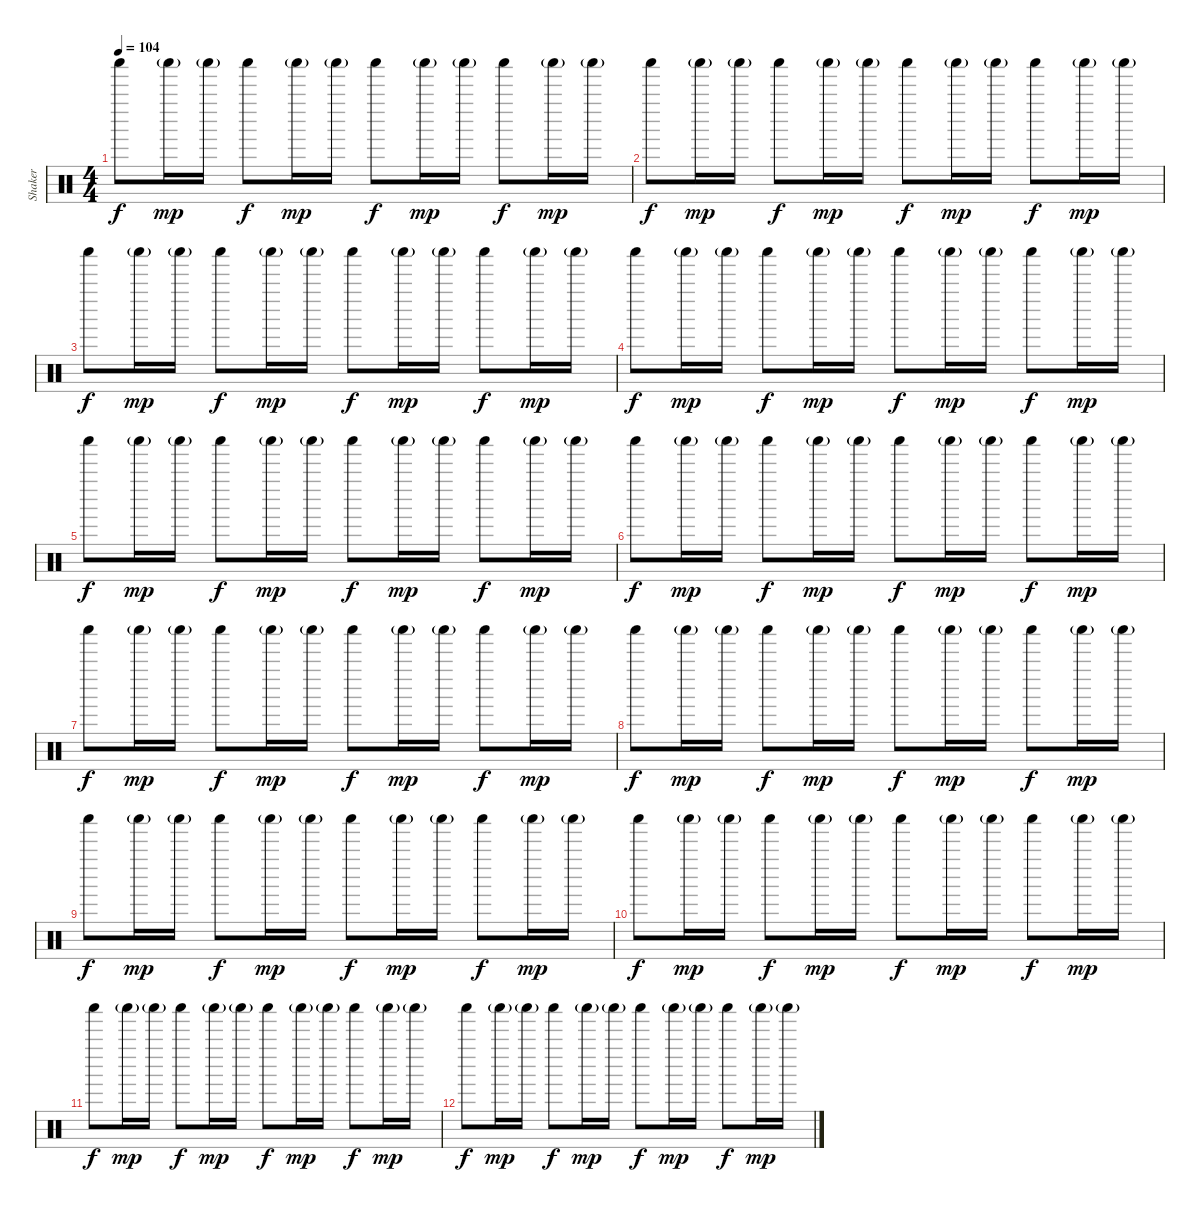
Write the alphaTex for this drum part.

\track ("Shaker" "Shaker") {instrument percussion}
\staff {score}
\articulation defaults
\ts (4 4)
\tempo 104
\clef neutral
\ks c "Shaker (hit)".8{dy f} "Shaker (hit)"{g}.16{dy mp} "Shaker (hit)"{g}.16 "Shaker (hit)".8{dy f} "Shaker (hit)"{g}.16{dy mp} "Shaker (hit)"{g}.16 "Shaker (hit)".8{dy f} "Shaker (hit)"{g}.16{dy mp} "Shaker (hit)"{g}.16 "Shaker (hit)".8{dy f} "Shaker (hit)"{g}.16{dy mp} "Shaker (hit)"{g}.16
|
"Shaker (hit)".8{dy f} "Shaker (hit)"{g}.16{dy mp} "Shaker (hit)"{g}.16 "Shaker (hit)".8{dy f} "Shaker (hit)"{g}.16{dy mp} "Shaker (hit)"{g}.16 "Shaker (hit)".8{dy f} "Shaker (hit)"{g}.16{dy mp} "Shaker (hit)"{g}.16 "Shaker (hit)".8{dy f} "Shaker (hit)"{g}.16{dy mp} "Shaker (hit)"{g}.16 |
"Shaker (hit)".8{dy f} "Shaker (hit)"{g}.16{dy mp} "Shaker (hit)"{g}.16 "Shaker (hit)".8{dy f} "Shaker (hit)"{g}.16{dy mp} "Shaker (hit)"{g}.16 "Shaker (hit)".8{dy f} "Shaker (hit)"{g}.16{dy mp} "Shaker (hit)"{g}.16 "Shaker (hit)".8{dy f} "Shaker (hit)"{g}.16{dy mp} "Shaker (hit)"{g}.16 |
"Shaker (hit)".8{dy f} "Shaker (hit)"{g}.16{dy mp} "Shaker (hit)"{g}.16 "Shaker (hit)".8{dy f} "Shaker (hit)"{g}.16{dy mp} "Shaker (hit)"{g}.16 "Shaker (hit)".8{dy f} "Shaker (hit)"{g}.16{dy mp} "Shaker (hit)"{g}.16 "Shaker (hit)".8{dy f} "Shaker (hit)"{g}.16{dy mp} "Shaker (hit)"{g}.16 |
"Shaker (hit)".8{dy f} "Shaker (hit)"{g}.16{dy mp} "Shaker (hit)"{g}.16 "Shaker (hit)".8{dy f} "Shaker (hit)"{g}.16{dy mp} "Shaker (hit)"{g}.16 "Shaker (hit)".8{dy f} "Shaker (hit)"{g}.16{dy mp} "Shaker (hit)"{g}.16 "Shaker (hit)".8{dy f} "Shaker (hit)"{g}.16{dy mp} "Shaker (hit)"{g}.16 |
"Shaker (hit)".8{dy f} "Shaker (hit)"{g}.16{dy mp} "Shaker (hit)"{g}.16 "Shaker (hit)".8{dy f} "Shaker (hit)"{g}.16{dy mp} "Shaker (hit)"{g}.16 "Shaker (hit)".8{dy f} "Shaker (hit)"{g}.16{dy mp} "Shaker (hit)"{g}.16 "Shaker (hit)".8{dy f} "Shaker (hit)"{g}.16{dy mp} "Shaker (hit)"{g}.16 |
"Shaker (hit)".8{dy f} "Shaker (hit)"{g}.16{dy mp} "Shaker (hit)"{g}.16 "Shaker (hit)".8{dy f} "Shaker (hit)"{g}.16{dy mp} "Shaker (hit)"{g}.16 "Shaker (hit)".8{dy f} "Shaker (hit)"{g}.16{dy mp} "Shaker (hit)"{g}.16 "Shaker (hit)".8{dy f} "Shaker (hit)"{g}.16{dy mp} "Shaker (hit)"{g}.16 |
"Shaker (hit)".8{dy f} "Shaker (hit)"{g}.16{dy mp} "Shaker (hit)"{g}.16 "Shaker (hit)".8{dy f} "Shaker (hit)"{g}.16{dy mp} "Shaker (hit)"{g}.16 "Shaker (hit)".8{dy f} "Shaker (hit)"{g}.16{dy mp} "Shaker (hit)"{g}.16 "Shaker (hit)".8{dy f} "Shaker (hit)"{g}.16{dy mp} "Shaker (hit)"{g}.16 |
"Shaker (hit)".8{dy f} "Shaker (hit)"{g}.16{dy mp} "Shaker (hit)"{g}.16 "Shaker (hit)".8{dy f} "Shaker (hit)"{g}.16{dy mp} "Shaker (hit)"{g}.16 "Shaker (hit)".8{dy f} "Shaker (hit)"{g}.16{dy mp} "Shaker (hit)"{g}.16 "Shaker (hit)".8{dy f} "Shaker (hit)"{g}.16{dy mp} "Shaker (hit)"{g}.16 |
"Shaker (hit)".8{dy f} "Shaker (hit)"{g}.16{dy mp} "Shaker (hit)"{g}.16 "Shaker (hit)".8{dy f} "Shaker (hit)"{g}.16{dy mp} "Shaker (hit)"{g}.16 "Shaker (hit)".8{dy f} "Shaker (hit)"{g}.16{dy mp} "Shaker (hit)"{g}.16 "Shaker (hit)".8{dy f} "Shaker (hit)"{g}.16{dy mp} "Shaker (hit)"{g}.16 |
"Shaker (hit)".8{dy f} "Shaker (hit)"{g}.16{dy mp} "Shaker (hit)"{g}.16 "Shaker (hit)".8{dy f} "Shaker (hit)"{g}.16{dy mp} "Shaker (hit)"{g}.16 "Shaker (hit)".8{dy f} "Shaker (hit)"{g}.16{dy mp} "Shaker (hit)"{g}.16 "Shaker (hit)".8{dy f} "Shaker (hit)"{g}.16{dy mp} "Shaker (hit)"{g}.16 |
"Shaker (hit)".8{dy f} "Shaker (hit)"{g}.16{dy mp} "Shaker (hit)"{g}.16 "Shaker (hit)".8{dy f} "Shaker (hit)"{g}.16{dy mp} "Shaker (hit)"{g}.16 "Shaker (hit)".8{dy f} "Shaker (hit)"{g}.16{dy mp} "Shaker (hit)"{g}.16 "Shaker (hit)".8{dy f} "Shaker (hit)"{g}.16{dy mp} "Shaker (hit)"{g}.16
